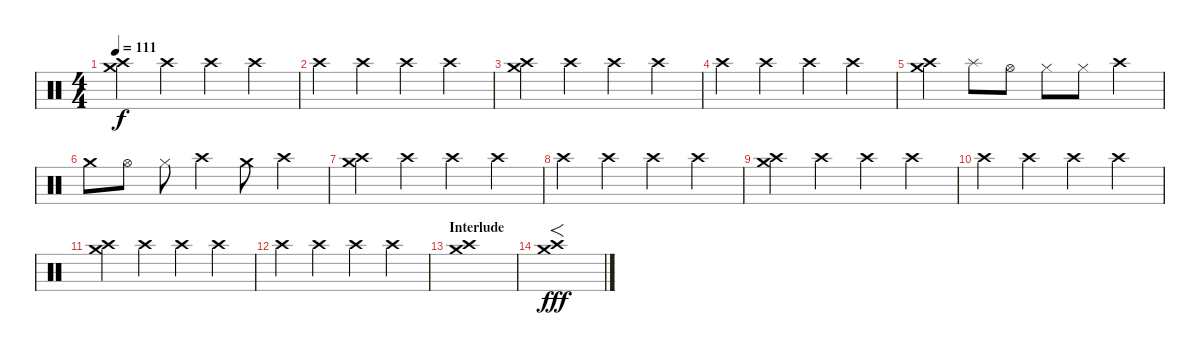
\track "" {instrument percussion}
\staff {score}
\articulation defaults
\ts (4 4)
\tempo 111
\clef neutral
\ks c
("Crash medium (hit)" "Crash high (hit)").4{dy f} "Crash high (hit)".4 "Crash high (hit)".4 "Crash high (hit)".4 |
"Crash high (hit)".4 "Crash high (hit)".4 "Crash high (hit)".4 "Crash high (hit)".4 |
("Crash medium (hit)" "Crash high (hit)").4 "Crash high (hit)".4 "Crash high (hit)".4 "Crash high (hit)".4 |
"Crash high (hit)".4 "Crash high (hit)".4 "Crash high (hit)".4 "Crash high (hit)".4 |
("Crash medium (hit)" "Crash high (hit)").4 "Splash (hit)".8 "Hi-Hat (open)".8 "Hi-Hat (closed)".8 "Hi-Hat (closed)".8 "Crash high (hit)".4 |
"Crash medium (hit)".8 "Hi-Hat (open)".8 "Hi-Hat (closed)".8 "Crash high (hit)".4 "Crash medium (hit)".8 "Crash high (hit)".4 |
("Crash medium (hit)" "Crash high (hit)").4 "Crash high (hit)".4 "Crash high (hit)".4 "Crash high (hit)".4 |
"Crash high (hit)".4 "Crash high (hit)".4 "Crash high (hit)".4 "Crash high (hit)".4 |
("Crash medium (hit)" "Crash high (hit)").4 "Crash high (hit)".4 "Crash high (hit)".4 "Crash high (hit)".4 |
"Crash high (hit)".4 "Crash high (hit)".4 "Crash high (hit)".4 "Crash high (hit)".4 |
("Crash medium (hit)" "Crash high (hit)").4 "Crash high (hit)".4 "Crash high (hit)".4 "Crash high (hit)".4 |
"Crash high (hit)".4 "Crash high (hit)".4 "Crash high (hit)".4 "Crash high (hit)".4 |
\section ("" "Interlude")
("Crash medium (hit)" "Crash high (hit)").1 |
("Crash medium (hit)" "Crash high (hit)").1{f dy fff}
